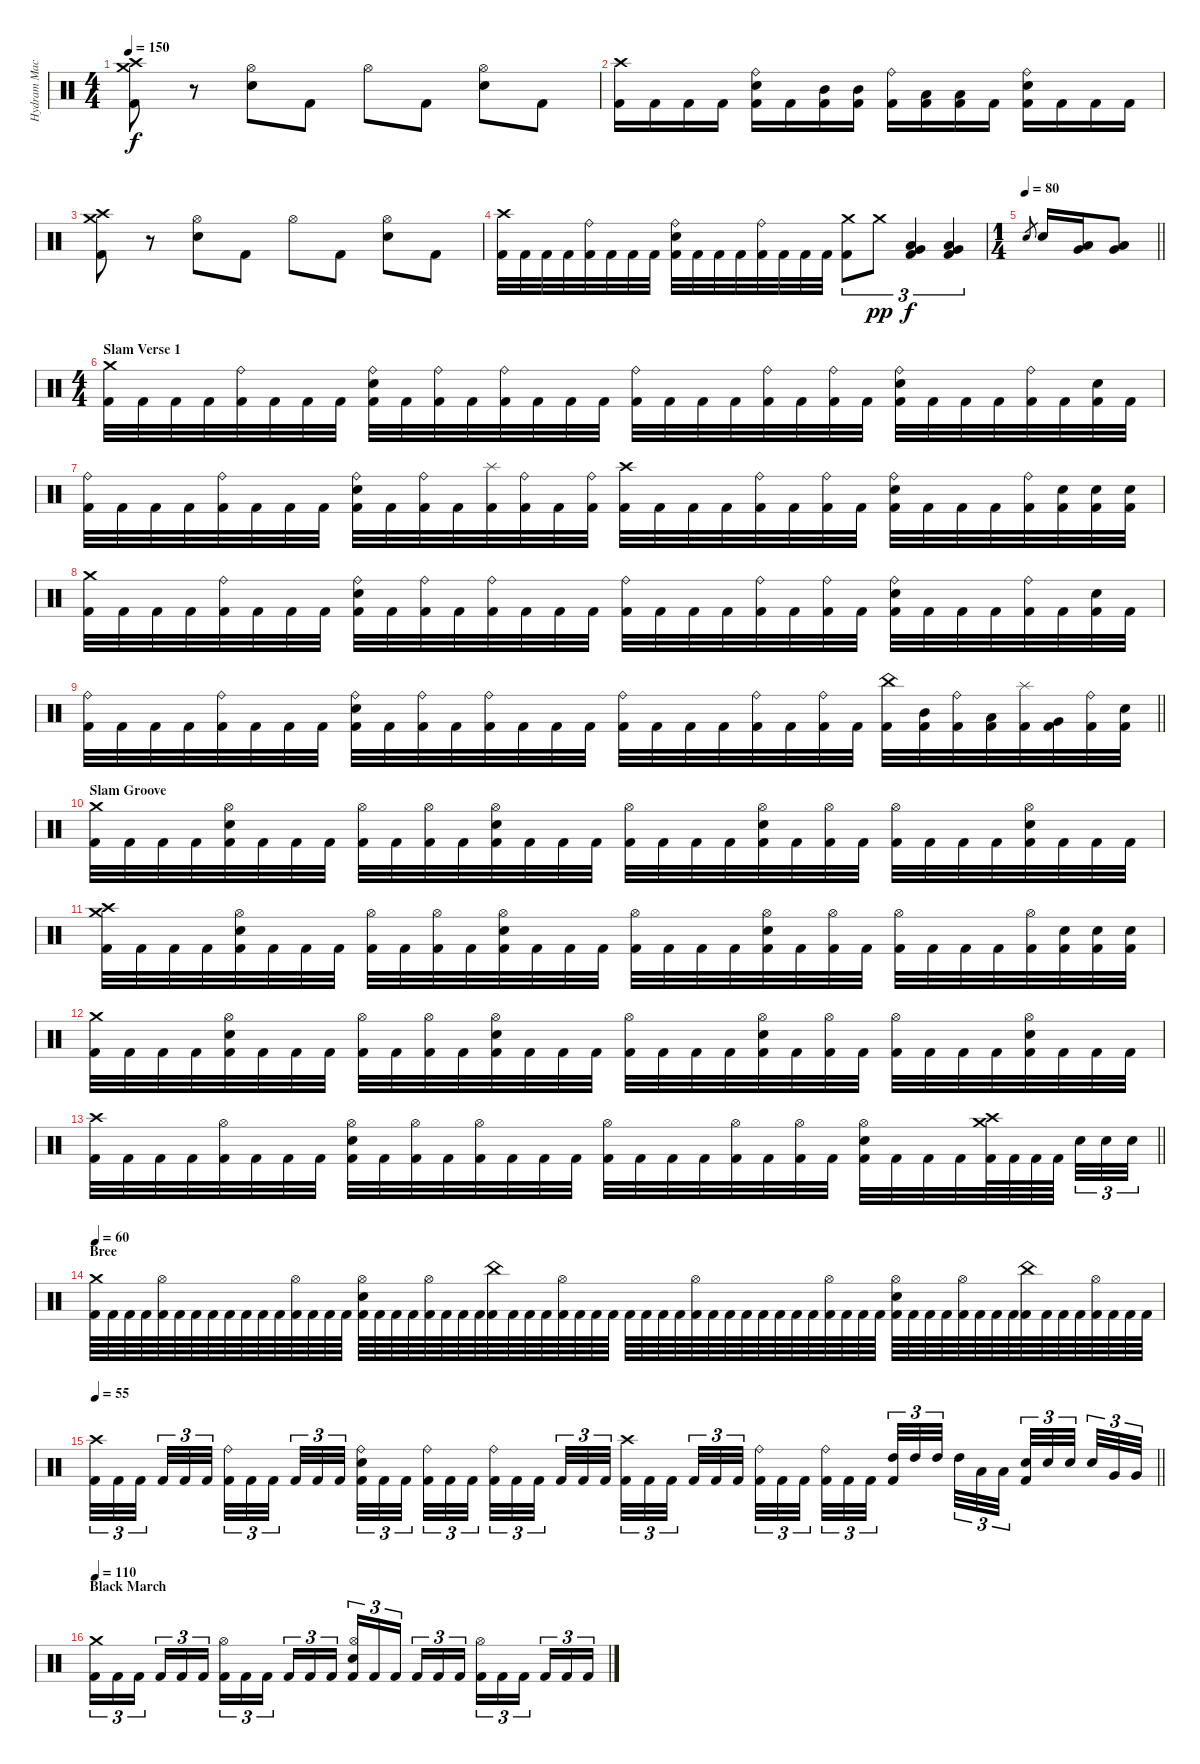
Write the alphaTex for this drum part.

\track ("Hydram Machine" "Hydram Mac") {instrument percussion}
\staff {score}
\articulation defaults
\ts (4 4)
\tempo 150
\clef neutral
\ks c
("Crash medium (hit)" "Crash high (hit)" "Kick (hit) 2").8{dy f} r.8 ("Hi-Hat (open)" "Electric Snare (hit)").8 "Kick (hit) 2".8 "Hi-Hat (open)".8 "Kick (hit) 2".8 ("Hi-Hat (open)" "Electric Snare (hit)").8 "Kick (hit) 2".8 |
("Crash high (hit)" "Kick (hit) 2").16 "Kick (hit) 2".16 "Kick (hit) 2".16 "Kick (hit) 2".16 ("Ride (bell)" "Electric Snare (hit)" "Kick (hit) 2").16 "Kick (hit) 2".16 ("Mid Tom (hit)" "Kick (hit) 2").16 ("Mid Tom (hit)" "Kick (hit) 2").16 ("Ride (bell)" "Kick (hit) 2").16 ("Low Tom (hit)" "Kick (hit) 2").16 ("Low Tom (hit)" "Kick (hit) 2").16 "Kick (hit) 2".16 ("Ride (bell)" "Electric Snare (hit)" "Kick (hit) 2").16 "Kick (hit) 2".16 "Kick (hit) 2".16 "Kick (hit) 2".16 |
("Crash medium (hit)" "Crash high (hit)" "Kick (hit) 2").8 r.8 ("Hi-Hat (open)" "Electric Snare (hit)").8 "Kick (hit) 2".8 "Hi-Hat (open)".8 "Kick (hit) 2".8 ("Hi-Hat (open)" "Electric Snare (hit)").8 "Kick (hit) 2".8 |
("Crash high (hit)" "Kick (hit) 2").32 "Kick (hit) 2".32 "Kick (hit) 2".32 "Kick (hit) 2".32 ("Ride (bell)" "Kick (hit) 2").32 "Kick (hit) 2".32 "Kick (hit) 2".32 "Kick (hit) 2".32 ("Ride (bell)" "Electric Snare (hit)" "Kick (hit) 2").32 "Kick (hit) 2".32 "Kick (hit) 2".32 "Kick (hit) 2".32 ("Ride (bell)" "Kick (hit) 2").32 "Kick (hit) 2".32 "Kick (hit) 2".32 "Kick (hit) 2".32 ("Crash medium (hit)" "Kick (hit) 2").8{tu (3 2)} "Crash medium (hit)".8{tu (3 2) dy pp} ("Low Tom (hit)" "Very Low Tom (hit)" "Kick (hit) 2").4{tu (3 2) dy f} ("Very Low Tom (hit)" "Low Floor Tom (hit)" "Kick (hit) 2").4{tu (3 2)} |
\ts (1 4)
\tempo 80
\barLineRight lightlight "Electric Snare (hit)".8{gr} "Electric Snare (hit)".16
("Low Tom (hit)" "Very Low Tom (hit)").16 ("Very Low Tom (hit)" "Low Floor Tom (hit)").8 |
\ts (4 4)
\section ("" "Slam Verse 1")
("Crash medium (hit)" "Kick (hit) 2").32 "Kick (hit) 2".32 "Kick (hit) 2".32 "Kick (hit) 2".32 ("Ride (bell)" "Kick (hit) 2").32 "Kick (hit) 2".32 "Kick (hit) 2".32 "Kick (hit) 2".32 ("Ride (bell)" "Electric Snare (hit)" "Kick (hit) 2").32 "Kick (hit) 2".32 ("Ride (bell)" "Kick (hit) 2").32 "Kick (hit) 2".32 ("Ride (bell)" "Kick (hit) 2").32 "Kick (hit) 2".32 "Kick (hit) 2".32 "Kick (hit) 2".32 ("Ride (bell)" "Kick (hit) 2").32 "Kick (hit) 2".32 "Kick (hit) 2".32 "Kick (hit) 2".32 ("Ride (bell)" "Kick (hit) 2").32 "Kick (hit) 2".32 ("Ride (bell)" "Kick (hit) 2").32 "Kick (hit) 2".32 ("Ride (bell)" "Electric Snare (hit)" "Kick (hit) 2").32 "Kick (hit) 2".32 "Kick (hit) 2".32 "Kick (hit) 2".32 ("Ride (bell)" "Kick (hit) 2").32 "Kick (hit) 2".32 ("Electric Snare (hit)" "Kick (hit) 2").32 "Kick (hit) 2".32 |
("Ride (bell)" "Kick (hit) 2").32 "Kick (hit) 2".32 "Kick (hit) 2".32 "Kick (hit) 2".32 ("Ride (bell)" "Kick (hit) 2").32 "Kick (hit) 2".32 "Kick (hit) 2".32 "Kick (hit) 2".32 ("Ride (bell)" "Electric Snare (hit)" "Kick (hit) 2").32 "Kick (hit) 2".32 ("Ride (bell)" "Kick (hit) 2").32 "Kick (hit) 2".32 ("Splash (hit)" "Kick (hit) 2").32 ("Ride (bell)" "Kick (hit) 2").32 "Kick (hit) 2".32 ("Ride (bell)" "Kick (hit) 2").32 ("Crash high (hit)" "Kick (hit) 2").32 "Kick (hit) 2".32 "Kick (hit) 2".32 "Kick (hit) 2".32 ("Ride (bell)" "Kick (hit) 2").32 "Kick (hit) 2".32 ("Ride (bell)" "Kick (hit) 2").32 "Kick (hit) 2".32 ("Ride (bell)" "Electric Snare (hit)" "Kick (hit) 2").32 "Kick (hit) 2".32 "Kick (hit) 2".32 "Kick (hit) 2".32 ("Ride (bell)" "Kick (hit) 2").32 ("Electric Snare (hit)" "Kick (hit) 2").32 ("Electric Snare (hit)" "Kick (hit) 2").32 ("Electric Snare (hit)" "Kick (hit) 2").32 |
("Crash medium (hit)" "Kick (hit) 2").32 "Kick (hit) 2".32 "Kick (hit) 2".32 "Kick (hit) 2".32 ("Ride (bell)" "Kick (hit) 2").32 "Kick (hit) 2".32 "Kick (hit) 2".32 "Kick (hit) 2".32 ("Ride (bell)" "Electric Snare (hit)" "Kick (hit) 2").32 "Kick (hit) 2".32 ("Ride (bell)" "Kick (hit) 2").32 "Kick (hit) 2".32 ("Ride (bell)" "Kick (hit) 2").32 "Kick (hit) 2".32 "Kick (hit) 2".32 "Kick (hit) 2".32 ("Ride (bell)" "Kick (hit) 2").32 "Kick (hit) 2".32 "Kick (hit) 2".32 "Kick (hit) 2".32 ("Ride (bell)" "Kick (hit) 2").32 "Kick (hit) 2".32 ("Ride (bell)" "Kick (hit) 2").32 "Kick (hit) 2".32 ("Ride (bell)" "Electric Snare (hit)" "Kick (hit) 2").32 "Kick (hit) 2".32 "Kick (hit) 2".32 "Kick (hit) 2".32 ("Ride (bell)" "Kick (hit) 2").32 "Kick (hit) 2".32 ("Electric Snare (hit)" "Kick (hit) 2").32 "Kick (hit) 2".32 |
\barLineRight lightlight
("Ride (bell)" "Kick (hit) 2").32 "Kick (hit) 2".32 "Kick (hit) 2".32 "Kick (hit) 2".32 ("Ride (bell)" "Kick (hit) 2").32 "Kick (hit) 2".32 "Kick (hit) 2".32 "Kick (hit) 2".32 ("Ride (bell)" "Electric Snare (hit)" "Kick (hit) 2").32 "Kick (hit) 2".32 ("Ride (bell)" "Kick (hit) 2").32 "Kick (hit) 2".32 ("Ride (bell)" "Kick (hit) 2").32 "Kick (hit) 2".32 "Kick (hit) 2".32 "Kick (hit) 2".32 ("Ride (bell)" "Kick (hit) 2").32 "Kick (hit) 2".32 "Kick (hit) 2".32 "Kick (hit) 2".32 ("Ride (bell)" "Kick (hit) 2").32 "Kick (hit) 2".32 ("Ride (bell)" "Kick (hit) 2").32 "Kick (hit) 2".32 ("China (hit)" "Kick (hit) 2").32 ("Mid Tom (hit)" "Kick (hit) 2").32 ("Ride (bell)" "Kick (hit) 2").32 ("Low Tom (hit)" "Kick (hit) 2").32 ("Splash (hit)" "Kick (hit) 2").32 ("Very Low Tom (hit)" "Kick (hit) 2").32 ("Ride (bell)" "Kick (hit) 2").32 ("Electric Snare (hit)" "Kick (hit) 2").32 |
\section ("" "Slam Groove")
("Crash medium (hit)" "Kick (hit) 2").32 "Kick (hit) 2".32 "Kick (hit) 2".32 "Kick (hit) 2".32 ("Hi-Hat (open)" "Electric Snare (hit)" "Kick (hit) 2").32 "Kick (hit) 2".32 "Kick (hit) 2".32 "Kick (hit) 2".32 ("Hi-Hat (open)" "Kick (hit) 2").32 "Kick (hit) 2".32 ("Hi-Hat (open)" "Kick (hit) 2").32 "Kick (hit) 2".32 ("Hi-Hat (open)" "Electric Snare (hit)" "Kick (hit) 2").32 "Kick (hit) 2".32 "Kick (hit) 2".32 "Kick (hit) 2".32 ("Hi-Hat (open)" "Kick (hit) 2").32 "Kick (hit) 2".32 "Kick (hit) 2".32 "Kick (hit) 2".32 ("Hi-Hat (open)" "Electric Snare (hit)" "Kick (hit) 2").32 "Kick (hit) 2".32 ("Hi-Hat (open)" "Kick (hit) 2").32 "Kick (hit) 2".32 ("Hi-Hat (open)" "Kick (hit) 2").32 "Kick (hit) 2".32 "Kick (hit) 2".32 "Kick (hit) 2".32 ("Hi-Hat (open)" "Electric Snare (hit)" "Kick (hit) 2").32 "Kick (hit) 2".32 "Kick (hit) 2".32 "Kick (hit) 2".32 |
("Crash high (hit)" "Crash medium (hit)" "Kick (hit) 2").32 "Kick (hit) 2".32 "Kick (hit) 2".32 "Kick (hit) 2".32 ("Hi-Hat (open)" "Electric Snare (hit)" "Kick (hit) 2").32 "Kick (hit) 2".32 "Kick (hit) 2".32 "Kick (hit) 2".32 ("Hi-Hat (open)" "Kick (hit) 2").32 "Kick (hit) 2".32 ("Hi-Hat (open)" "Kick (hit) 2").32 "Kick (hit) 2".32 ("Hi-Hat (open)" "Electric Snare (hit)" "Kick (hit) 2").32 "Kick (hit) 2".32 "Kick (hit) 2".32 "Kick (hit) 2".32 ("Hi-Hat (open)" "Kick (hit) 2").32 "Kick (hit) 2".32 "Kick (hit) 2".32 "Kick (hit) 2".32 ("Hi-Hat (open)" "Electric Snare (hit)" "Kick (hit) 2").32 "Kick (hit) 2".32 ("Hi-Hat (open)" "Kick (hit) 2").32 "Kick (hit) 2".32 ("Hi-Hat (open)" "Kick (hit) 2").32 "Kick (hit) 2".32 "Kick (hit) 2".32 "Kick (hit) 2".32 ("Hi-Hat (open)" "Kick (hit) 2").32 ("Electric Snare (hit)" "Kick (hit) 2").32 ("Electric Snare (hit)" "Kick (hit) 2").32 ("Electric Snare (hit)" "Kick (hit) 2").32 |
("Crash medium (hit)" "Kick (hit) 2").32 "Kick (hit) 2".32 "Kick (hit) 2".32 "Kick (hit) 2".32 ("Hi-Hat (open)" "Electric Snare (hit)" "Kick (hit) 2").32 "Kick (hit) 2".32 "Kick (hit) 2".32 "Kick (hit) 2".32 ("Hi-Hat (open)" "Kick (hit) 2").32 "Kick (hit) 2".32 ("Hi-Hat (open)" "Kick (hit) 2").32 "Kick (hit) 2".32 ("Hi-Hat (open)" "Electric Snare (hit)" "Kick (hit) 2").32 "Kick (hit) 2".32 "Kick (hit) 2".32 "Kick (hit) 2".32 ("Hi-Hat (open)" "Kick (hit) 2").32 "Kick (hit) 2".32 "Kick (hit) 2".32 "Kick (hit) 2".32 ("Hi-Hat (open)" "Electric Snare (hit)" "Kick (hit) 2").32 "Kick (hit) 2".32 ("Hi-Hat (open)" "Kick (hit) 2").32 "Kick (hit) 2".32 ("Hi-Hat (open)" "Kick (hit) 2").32 "Kick (hit) 2".32 "Kick (hit) 2".32 "Kick (hit) 2".32 ("Hi-Hat (open)" "Electric Snare (hit)" "Kick (hit) 2").32 "Kick (hit) 2".32 "Kick (hit) 2".32 "Kick (hit) 2".32 |
\barLineRight lightlight
("Crash high (hit)" "Kick (hit) 2").32 "Kick (hit) 2".32 "Kick (hit) 2".32 "Kick (hit) 2".32 ("Hi-Hat (open)" "Kick (hit) 2").32 "Kick (hit) 2".32 "Kick (hit) 2".32 "Kick (hit) 2".32 ("Hi-Hat (open)" "Electric Snare (hit)" "Kick (hit) 2").32 "Kick (hit) 2".32 ("Hi-Hat (open)" "Kick (hit) 2").32 "Kick (hit) 2".32 ("Hi-Hat (open)" "Kick (hit) 2").32 "Kick (hit) 2".32 "Kick (hit) 2".32 "Kick (hit) 2".32 ("Hi-Hat (open)" "Kick (hit) 2").32 "Kick (hit) 2".32 "Kick (hit) 2".32 "Kick (hit) 2".32 ("Hi-Hat (open)" "Kick (hit) 2").32 "Kick (hit) 2".32 ("Hi-Hat (open)" "Kick (hit) 2").32 "Kick (hit) 2".32 ("Hi-Hat (open)" "Electric Snare (hit)" "Kick (hit) 2").32 "Kick (hit) 2".32 "Kick (hit) 2".32 "Kick (hit) 2".32 ("Crash high (hit)" "Crash medium (hit)" "Kick (hit) 2").64 "Kick (hit) 2".64 "Kick (hit) 2".64 "Kick (hit) 2".64{beam splitsecondary} "Electric Snare (hit)".32{tu (3 2)} "Electric Snare (hit)".32{tu (3 2)} "Electric Snare (hit)".32{tu (3 2)} |
\section ("" "Bree")
\tempo 60
("Crash medium (hit)" "Kick (hit) 2").64 "Kick (hit) 2".64 "Kick (hit) 2".64 "Kick (hit) 2".64 ("Hi-Hat (open)" "Kick (hit) 2").64 "Kick (hit) 2".64 "Kick (hit) 2".64 "Kick (hit) 2".64 "Kick (hit) 2".64 "Kick (hit) 2".64 "Kick (hit) 2".64 "Kick (hit) 2".64 ("Hi-Hat (open)" "Kick (hit) 2").64 "Kick (hit) 2".64 "Kick (hit) 2".64 "Kick (hit) 2".64 ("Hi-Hat (open)" "Electric Snare (hit)" "Kick (hit) 2").64 "Kick (hit) 2".64 "Kick (hit) 2".64 "Kick (hit) 2".64 ("Hi-Hat (open)" "Kick (hit) 2").64 "Kick (hit) 2".64 "Kick (hit) 2".64 "Kick (hit) 2".64 ("China (hit)" "Kick (hit) 2").64 "Kick (hit) 2".64 "Kick (hit) 2".64 "Kick (hit) 2".64 ("Hi-Hat (open)" "Kick (hit) 2").64 "Kick (hit) 2".64 "Kick (hit) 2".64 "Kick (hit) 2".64 "Kick (hit) 2".64 "Kick (hit) 2".64 "Kick (hit) 2".64 "Kick (hit) 2".64 ("Hi-Hat (open)" "Kick (hit) 2").64 "Kick (hit) 2".64 "Kick (hit) 2".64 "Kick (hit) 2".64 "Kick (hit) 2".64 "Kick (hit) 2".64 "Kick (hit) 2".64 "Kick (hit) 2".64 ("Hi-Hat (open)" "Kick (hit) 2").64 "Kick (hit) 2".64 "Kick (hit) 2".64 "Kick (hit) 2".64 ("Hi-Hat (open)" "Electric Snare (hit)" "Kick (hit) 2").64 "Kick (hit) 2".64 "Kick (hit) 2".64 "Kick (hit) 2".64 ("Hi-Hat (open)" "Kick (hit) 2").64 "Kick (hit) 2".64 "Kick (hit) 2".64 "Kick (hit) 2".64 ("China (hit)" "Kick (hit) 2").64 "Kick (hit) 2".64 "Kick (hit) 2".64 "Kick (hit) 2".64 ("Hi-Hat (open)" "Kick (hit) 2").64 "Kick (hit) 2".64 "Kick (hit) 2".64 "Kick (hit) 2".64 |
\tempo 55
\barLineRight lightlight
("Crash high (hit)" "Kick (hit) 2").32{tu (3 2)} "Kick (hit) 2".32{tu (3 2)} "Kick (hit) 2".32{tu (3 2) beam splitsecondary} "Kick (hit) 2".32{tu (3 2)} "Kick (hit) 2".32{tu (3 2)} "Kick (hit) 2".32{tu (3 2) beam splitsecondary} ("Ride (bell)" "Kick (hit) 2").32{tu (3 2)} "Kick (hit) 2".32{tu (3 2)} "Kick (hit) 2".32{tu (3 2) beam splitsecondary} "Kick (hit) 2".32{tu (3 2)} "Kick (hit) 2".32{tu (3 2)} "Kick (hit) 2".32{tu (3 2)} ("Ride (bell)" "Electric Snare (hit)" "Kick (hit) 2").32{tu (3 2)} "Kick (hit) 2".32{tu (3 2)} "Kick (hit) 2".32{tu (3 2) beam splitsecondary} ("Ride (bell)" "Kick (hit) 2").32{tu (3 2)} "Kick (hit) 2".32{tu (3 2)} "Kick (hit) 2".32{tu (3 2) beam splitsecondary} ("Ride (bell)" "Kick (hit) 2").32{tu (3 2)} "Kick (hit) 2".32{tu (3 2)} "Kick (hit) 2".32{tu (3 2) beam splitsecondary} "Kick (hit) 2".32{tu (3 2)} "Kick (hit) 2".32{tu (3 2)} "Kick (hit) 2".32{tu (3 2)} ("Crash high (hit)" "Kick (hit) 2").32{tu (3 2)} "Kick (hit) 2".32{tu (3 2)} "Kick (hit) 2".32{tu (3 2) beam splitsecondary} "Kick (hit) 2".32{tu (3 2)} "Kick (hit) 2".32{tu (3 2)} "Kick (hit) 2".32{tu (3 2) beam splitsecondary} ("Ride (bell)" "Kick (hit) 2").32{tu (3 2)} "Kick (hit) 2".32{tu (3 2)} "Kick (hit) 2".32{tu (3 2) beam splitsecondary} ("Ride (bell)" "Kick (hit) 2").32{tu (3 2)} "Kick (hit) 2".32{tu (3 2)} "Kick (hit) 2".32{tu (3 2)} ("High Tom (hit)" "Kick (hit) 2").32{tu (3 2)} "High Tom (hit)".32{tu (3 2)} "High Tom (hit)".32{tu (3 2) beam splitsecondary} "High Tom (hit)".32{tu (3 2)} "Low Tom (hit)".32{tu (3 2)} "Low Tom (hit)".32{tu (3 2) beam splitsecondary} ("Electric Snare (hit)" "Kick (hit) 2").32{tu (3 2)} "Electric Snare (hit)".32{tu (3 2)} "Electric Snare (hit)".32{tu (3 2) beam splitsecondary} "Electric Snare (hit)".32{tu (3 2)} "Very Low Tom (hit)".32{tu (3 2)} "Very Low Tom (hit)".32{tu (3 2)} |
\section ("" "Black March")
\tempo 110
("Crash medium (hit)" "Kick (hit) 2").16{tu (3 2)} "Kick (hit) 2".16{tu (3 2)} "Kick (hit) 2".16{tu (3 2) beam splitsecondary} "Kick (hit) 2".16{tu (3 2)} "Kick (hit) 2".16{tu (3 2)} "Kick (hit) 2".16{tu (3 2)} ("Hi-Hat (open)" "Kick (hit) 2").16{tu (3 2)} "Kick (hit) 2".16{tu (3 2)} "Kick (hit) 2".16{tu (3 2) beam splitsecondary} "Kick (hit) 2".16{tu (3 2)} "Kick (hit) 2".16{tu (3 2)} "Kick (hit) 2".16{tu (3 2)} ("Hi-Hat (open)" "Electric Snare (hit)" "Kick (hit) 2").16{tu (3 2)} "Kick (hit) 2".16{tu (3 2)} "Kick (hit) 2".16{tu (3 2) beam splitsecondary} "Kick (hit) 2".16{tu (3 2)} "Kick (hit) 2".16{tu (3 2)} "Kick (hit) 2".16{tu (3 2)} ("Hi-Hat (open)" "Kick (hit) 2").16{tu (3 2)} "Kick (hit) 2".16{tu (3 2)} "Kick (hit) 2".16{tu (3 2) beam splitsecondary} "Kick (hit) 2".16{tu (3 2)} "Kick (hit) 2".16{tu (3 2)} "Kick (hit) 2".16{tu (3 2)}
